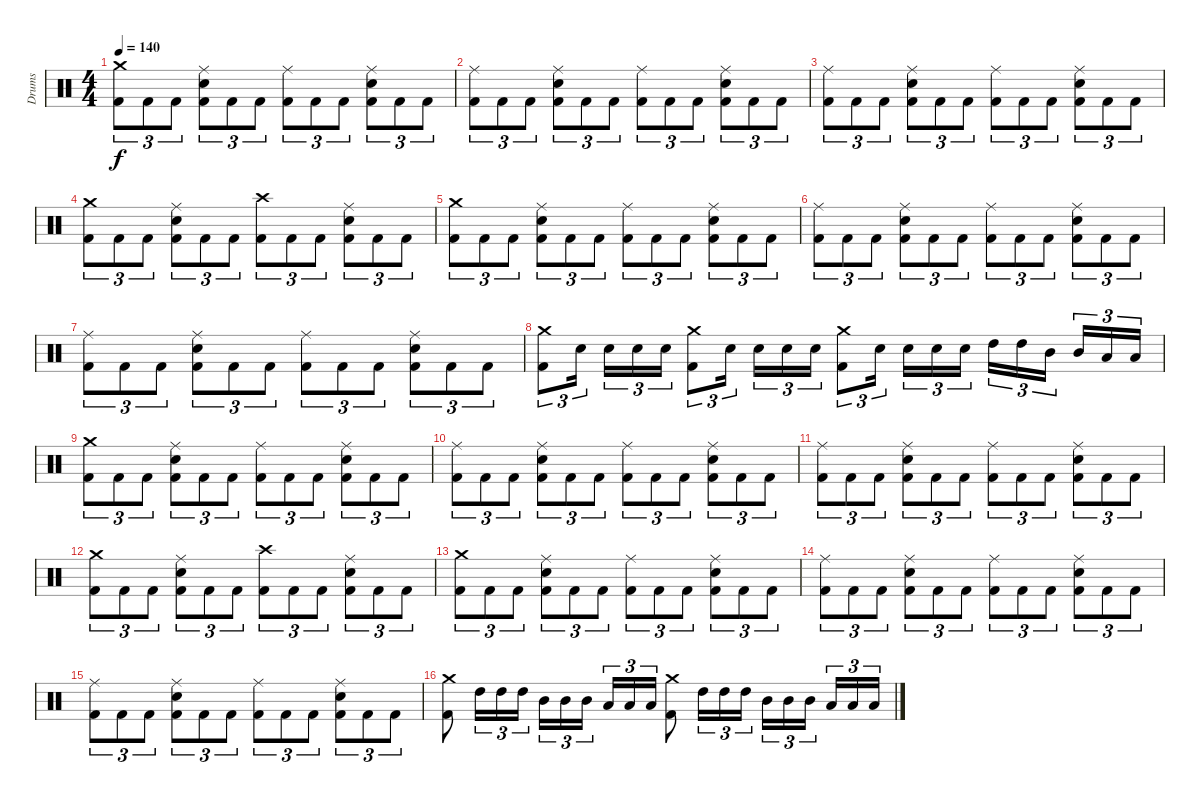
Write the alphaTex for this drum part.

\track ("Drums" "Drums") {instrument percussion}
\staff {score}
\articulation defaults
\ts (4 4)
\tempo 140
\clef neutral
\ks c
("Kick (hit) 2" "Crash medium (hit)").8{tu (3 2) dy f} "Kick (hit) 2".8{tu (3 2)} "Kick (hit) 2".8{tu (3 2)} ("Kick (hit) 2" "Electric Snare (hit)" "Ride (middle)").8{tu (3 2)} "Kick (hit) 2".8{tu (3 2)} "Kick (hit) 2".8{tu (3 2)} ("Kick (hit) 2" "Ride (middle)").8{tu (3 2)} "Kick (hit) 2".8{tu (3 2)} "Kick (hit) 2".8{tu (3 2)} ("Kick (hit) 2" "Electric Snare (hit)" "Ride (middle)").8{tu (3 2)} "Kick (hit) 2".8{tu (3 2)} "Kick (hit) 2".8{tu (3 2)} |
("Kick (hit) 2" "Ride (middle)").8{tu (3 2)} "Kick (hit) 2".8{tu (3 2)} "Kick (hit) 2".8{tu (3 2)} ("Kick (hit) 2" "Electric Snare (hit)" "Ride (middle)").8{tu (3 2)} "Kick (hit) 2".8{tu (3 2)} "Kick (hit) 2".8{tu (3 2)} ("Kick (hit) 2" "Ride (middle)").8{tu (3 2)} "Kick (hit) 2".8{tu (3 2)} "Kick (hit) 2".8{tu (3 2)} ("Kick (hit) 2" "Electric Snare (hit)" "Ride (middle)").8{tu (3 2)} "Kick (hit) 2".8{tu (3 2)} "Kick (hit) 2".8{tu (3 2)} |
("Kick (hit) 2" "Ride (middle)").8{tu (3 2)} "Kick (hit) 2".8{tu (3 2)} "Kick (hit) 2".8{tu (3 2)} ("Kick (hit) 2" "Electric Snare (hit)" "Ride (middle)").8{tu (3 2)} "Kick (hit) 2".8{tu (3 2)} "Kick (hit) 2".8{tu (3 2)} ("Kick (hit) 2" "Ride (middle)").8{tu (3 2)} "Kick (hit) 2".8{tu (3 2)} "Kick (hit) 2".8{tu (3 2)} ("Kick (hit) 2" "Electric Snare (hit)" "Ride (middle)").8{tu (3 2)} "Kick (hit) 2".8{tu (3 2)} "Kick (hit) 2".8{tu (3 2)} |
("Kick (hit) 2" "Crash medium (hit)").8{tu (3 2)} "Kick (hit) 2".8{tu (3 2)} "Kick (hit) 2".8{tu (3 2)} ("Kick (hit) 2" "Electric Snare (hit)" "Ride (middle)").8{tu (3 2)} "Kick (hit) 2".8{tu (3 2)} "Kick (hit) 2".8{tu (3 2)} ("Kick (hit) 2" "Crash high (hit)").8{tu (3 2)} "Kick (hit) 2".8{tu (3 2)} "Kick (hit) 2".8{tu (3 2)} ("Kick (hit) 2" "Electric Snare (hit)" "Ride (middle)").8{tu (3 2)} "Kick (hit) 2".8{tu (3 2)} "Kick (hit) 2".8{tu (3 2)} |
("Kick (hit) 2" "Crash medium (hit)").8{tu (3 2)} "Kick (hit) 2".8{tu (3 2)} "Kick (hit) 2".8{tu (3 2)} ("Kick (hit) 2" "Electric Snare (hit)" "Ride (middle)").8{tu (3 2)} "Kick (hit) 2".8{tu (3 2)} "Kick (hit) 2".8{tu (3 2)} ("Kick (hit) 2" "Ride (middle)").8{tu (3 2)} "Kick (hit) 2".8{tu (3 2)} "Kick (hit) 2".8{tu (3 2)} ("Kick (hit) 2" "Electric Snare (hit)" "Ride (middle)").8{tu (3 2)} "Kick (hit) 2".8{tu (3 2)} "Kick (hit) 2".8{tu (3 2)} |
("Kick (hit) 2" "Ride (middle)").8{tu (3 2)} "Kick (hit) 2".8{tu (3 2)} "Kick (hit) 2".8{tu (3 2)} ("Kick (hit) 2" "Electric Snare (hit)" "Ride (middle)").8{tu (3 2)} "Kick (hit) 2".8{tu (3 2)} "Kick (hit) 2".8{tu (3 2)} ("Kick (hit) 2" "Ride (middle)").8{tu (3 2)} "Kick (hit) 2".8{tu (3 2)} "Kick (hit) 2".8{tu (3 2)} ("Kick (hit) 2" "Electric Snare (hit)" "Ride (middle)").8{tu (3 2)} "Kick (hit) 2".8{tu (3 2)} "Kick (hit) 2".8{tu (3 2)} |
("Kick (hit) 2" "Ride (middle)").8{tu (3 2)} "Kick (hit) 2".8{tu (3 2)} "Kick (hit) 2".8{tu (3 2)} ("Kick (hit) 2" "Electric Snare (hit)" "Ride (middle)").8{tu (3 2)} "Kick (hit) 2".8{tu (3 2)} "Kick (hit) 2".8{tu (3 2)} ("Kick (hit) 2" "Ride (middle)").8{tu (3 2)} "Kick (hit) 2".8{tu (3 2)} "Kick (hit) 2".8{tu (3 2)} ("Kick (hit) 2" "Electric Snare (hit)" "Ride (middle)").8{tu (3 2)} "Kick (hit) 2".8{tu (3 2)} "Kick (hit) 2".8{tu (3 2)} |
("Kick (hit) 2" "Crash medium (hit)").8{tu (3 2)} "Electric Snare (hit)".16{tu (3 2)} "Electric Snare (hit)".16{tu (3 2)} "Electric Snare (hit)".16{tu (3 2)} "Electric Snare (hit)".16{tu (3 2)} ("Kick (hit) 2" "Crash medium (hit)").8{tu (3 2)} "Electric Snare (hit)".16{tu (3 2)} "Electric Snare (hit)".16{tu (3 2)} "Electric Snare (hit)".16{tu (3 2)} "Electric Snare (hit)".16{tu (3 2)} ("Kick (hit) 2" "Crash medium (hit)").8{tu (3 2)} "Electric Snare (hit)".16{tu (3 2)} "Electric Snare (hit)".16{tu (3 2)} "Electric Snare (hit)".16{tu (3 2)} "Electric Snare (hit)".16{tu (3 2)} "High Tom (hit)".16{tu (3 2)} "High Tom (hit)".16{tu (3 2)} "Mid Tom (hit)".16{tu (3 2)} "Mid Tom (hit)".16{tu (3 2)} "Low Tom (hit)".16{tu (3 2)} "Low Tom (hit)".16{tu (3 2)} |
("Kick (hit) 2" "Crash medium (hit)").8{tu (3 2)} "Kick (hit) 2".8{tu (3 2)} "Kick (hit) 2".8{tu (3 2)} ("Kick (hit) 2" "Electric Snare (hit)" "Ride (middle)").8{tu (3 2)} "Kick (hit) 2".8{tu (3 2)} "Kick (hit) 2".8{tu (3 2)} ("Kick (hit) 2" "Ride (middle)").8{tu (3 2)} "Kick (hit) 2".8{tu (3 2)} "Kick (hit) 2".8{tu (3 2)} ("Kick (hit) 2" "Electric Snare (hit)" "Ride (middle)").8{tu (3 2)} "Kick (hit) 2".8{tu (3 2)} "Kick (hit) 2".8{tu (3 2)} |
("Kick (hit) 2" "Ride (middle)").8{tu (3 2)} "Kick (hit) 2".8{tu (3 2)} "Kick (hit) 2".8{tu (3 2)} ("Kick (hit) 2" "Electric Snare (hit)" "Ride (middle)").8{tu (3 2)} "Kick (hit) 2".8{tu (3 2)} "Kick (hit) 2".8{tu (3 2)} ("Kick (hit) 2" "Ride (middle)").8{tu (3 2)} "Kick (hit) 2".8{tu (3 2)} "Kick (hit) 2".8{tu (3 2)} ("Kick (hit) 2" "Electric Snare (hit)" "Ride (middle)").8{tu (3 2)} "Kick (hit) 2".8{tu (3 2)} "Kick (hit) 2".8{tu (3 2)} |
("Kick (hit) 2" "Ride (middle)").8{tu (3 2)} "Kick (hit) 2".8{tu (3 2)} "Kick (hit) 2".8{tu (3 2)} ("Kick (hit) 2" "Electric Snare (hit)" "Ride (middle)").8{tu (3 2)} "Kick (hit) 2".8{tu (3 2)} "Kick (hit) 2".8{tu (3 2)} ("Kick (hit) 2" "Ride (middle)").8{tu (3 2)} "Kick (hit) 2".8{tu (3 2)} "Kick (hit) 2".8{tu (3 2)} ("Kick (hit) 2" "Electric Snare (hit)" "Ride (middle)").8{tu (3 2)} "Kick (hit) 2".8{tu (3 2)} "Kick (hit) 2".8{tu (3 2)} |
("Kick (hit) 2" "Crash medium (hit)").8{tu (3 2)} "Kick (hit) 2".8{tu (3 2)} "Kick (hit) 2".8{tu (3 2)} ("Kick (hit) 2" "Electric Snare (hit)" "Ride (middle)").8{tu (3 2)} "Kick (hit) 2".8{tu (3 2)} "Kick (hit) 2".8{tu (3 2)} ("Kick (hit) 2" "Crash high (hit)").8{tu (3 2)} "Kick (hit) 2".8{tu (3 2)} "Kick (hit) 2".8{tu (3 2)} ("Kick (hit) 2" "Electric Snare (hit)" "Ride (middle)").8{tu (3 2)} "Kick (hit) 2".8{tu (3 2)} "Kick (hit) 2".8{tu (3 2)} |
("Kick (hit) 2" "Crash medium (hit)").8{tu (3 2)} "Kick (hit) 2".8{tu (3 2)} "Kick (hit) 2".8{tu (3 2)} ("Kick (hit) 2" "Electric Snare (hit)" "Ride (middle)").8{tu (3 2)} "Kick (hit) 2".8{tu (3 2)} "Kick (hit) 2".8{tu (3 2)} ("Kick (hit) 2" "Ride (middle)").8{tu (3 2)} "Kick (hit) 2".8{tu (3 2)} "Kick (hit) 2".8{tu (3 2)} ("Kick (hit) 2" "Electric Snare (hit)" "Ride (middle)").8{tu (3 2)} "Kick (hit) 2".8{tu (3 2)} "Kick (hit) 2".8{tu (3 2)} |
("Kick (hit) 2" "Ride (middle)").8{tu (3 2)} "Kick (hit) 2".8{tu (3 2)} "Kick (hit) 2".8{tu (3 2)} ("Kick (hit) 2" "Electric Snare (hit)" "Ride (middle)").8{tu (3 2)} "Kick (hit) 2".8{tu (3 2)} "Kick (hit) 2".8{tu (3 2)} ("Kick (hit) 2" "Ride (middle)").8{tu (3 2)} "Kick (hit) 2".8{tu (3 2)} "Kick (hit) 2".8{tu (3 2)} ("Kick (hit) 2" "Electric Snare (hit)" "Ride (middle)").8{tu (3 2)} "Kick (hit) 2".8{tu (3 2)} "Kick (hit) 2".8{tu (3 2)} |
("Kick (hit) 2" "Ride (middle)").8{tu (3 2)} "Kick (hit) 2".8{tu (3 2)} "Kick (hit) 2".8{tu (3 2)} ("Kick (hit) 2" "Electric Snare (hit)" "Ride (middle)").8{tu (3 2)} "Kick (hit) 2".8{tu (3 2)} "Kick (hit) 2".8{tu (3 2)} ("Kick (hit) 2" "Ride (middle)").8{tu (3 2)} "Kick (hit) 2".8{tu (3 2)} "Kick (hit) 2".8{tu (3 2)} ("Kick (hit) 2" "Electric Snare (hit)" "Ride (middle)").8{tu (3 2)} "Kick (hit) 2".8{tu (3 2)} "Kick (hit) 2".8{tu (3 2)} |
("Kick (hit) 2" "Crash medium (hit)").8 "High Tom (hit)".16{tu (3 2)} "High Tom (hit)".16{tu (3 2)} "High Tom (hit)".16{tu (3 2)} "Mid Tom (hit)".16{tu (3 2)} "Mid Tom (hit)".16{tu (3 2)} "Mid Tom (hit)".16{tu (3 2)} "Low Tom (hit)".16{tu (3 2)} "Low Tom (hit)".16{tu (3 2)} "Low Tom (hit)".16{tu (3 2)} ("Kick (hit) 2" "Crash medium (hit)").8 "High Tom (hit)".16{tu (3 2)} "High Tom (hit)".16{tu (3 2)} "High Tom (hit)".16{tu (3 2)} "Mid Tom (hit)".16{tu (3 2)} "Mid Tom (hit)".16{tu (3 2)} "Mid Tom (hit)".16{tu (3 2)} "Low Tom (hit)".16{tu (3 2)} "Low Tom (hit)".16{tu (3 2)} "Low Tom (hit)".16{tu (3 2)}
